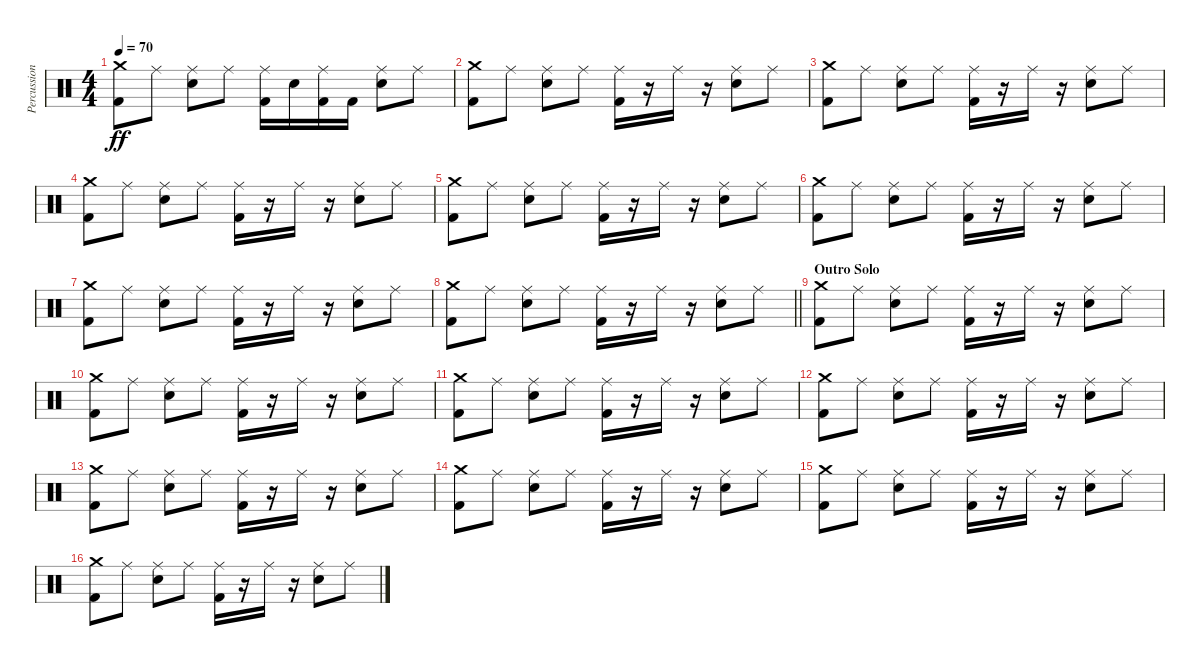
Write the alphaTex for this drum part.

\track ("Percussion" "Percussion") {instrument percussion}
\staff {score}
\articulation defaults
\ts (4 4)
\tempo 70
\clef neutral
\ks c
("Crash medium (hit)" "Kick (hit) 2").8{dy ff} "Ride (middle)".8 ("Ride (middle)" "Electric Snare (hit)").8 "Ride (middle)".8 ("Ride (middle)" "Kick (hit) 2").16 "Electric Snare (hit)".16 ("Ride (middle)" "Kick (hit) 2").16 "Kick (hit) 2".16 ("Ride (middle)" "Electric Snare (hit)").8 "Ride (middle)".8 |
("Crash medium (hit)" "Kick (hit) 2").8 "Ride (middle)".8 ("Ride (middle)" "Electric Snare (hit)").8 "Ride (middle)".8 ("Ride (middle)" "Kick (hit) 2").16 r.16 "Ride (middle)".16 r.16 ("Ride (middle)" "Electric Snare (hit)").8 "Ride (middle)".8 |
("Crash medium (hit)" "Kick (hit) 2").8 "Ride (middle)".8 ("Ride (middle)" "Electric Snare (hit)").8 "Ride (middle)".8 ("Ride (middle)" "Kick (hit) 2").16 r.16 "Ride (middle)".16 r.16 ("Ride (middle)" "Electric Snare (hit)").8 "Ride (middle)".8 |
("Crash medium (hit)" "Kick (hit) 2").8 "Ride (middle)".8 ("Ride (middle)" "Electric Snare (hit)").8 "Ride (middle)".8 ("Ride (middle)" "Kick (hit) 2").16 r.16 "Ride (middle)".16 r.16 ("Ride (middle)" "Electric Snare (hit)").8 "Ride (middle)".8 |
("Crash medium (hit)" "Kick (hit) 2").8 "Ride (middle)".8 ("Ride (middle)" "Electric Snare (hit)").8 "Ride (middle)".8 ("Ride (middle)" "Kick (hit) 2").16 r.16 "Ride (middle)".16 r.16 ("Ride (middle)" "Electric Snare (hit)").8 "Ride (middle)".8 |
("Crash medium (hit)" "Kick (hit) 2").8 "Ride (middle)".8 ("Ride (middle)" "Electric Snare (hit)").8 "Ride (middle)".8 ("Ride (middle)" "Kick (hit) 2").16 r.16 "Ride (middle)".16 r.16 ("Ride (middle)" "Electric Snare (hit)").8 "Ride (middle)".8 |
("Crash medium (hit)" "Kick (hit) 2").8 "Ride (middle)".8 ("Ride (middle)" "Electric Snare (hit)").8 "Ride (middle)".8 ("Ride (middle)" "Kick (hit) 2").16 r.16 "Ride (middle)".16 r.16 ("Ride (middle)" "Electric Snare (hit)").8 "Ride (middle)".8 |
\barLineRight lightlight
("Crash medium (hit)" "Kick (hit) 2").8 "Ride (middle)".8 ("Ride (middle)" "Electric Snare (hit)").8 "Ride (middle)".8 ("Ride (middle)" "Kick (hit) 2").16 r.16 "Ride (middle)".16 r.16 ("Ride (middle)" "Electric Snare (hit)").8 "Ride (middle)".8 |
\section ("" "Outro Solo")
("Crash medium (hit)" "Kick (hit) 2").8 "Ride (middle)".8 ("Ride (middle)" "Electric Snare (hit)").8 "Ride (middle)".8 ("Ride (middle)" "Kick (hit) 2").16 r.16 "Ride (middle)".16 r.16 ("Ride (middle)" "Electric Snare (hit)").8 "Ride (middle)".8 |
("Crash medium (hit)" "Kick (hit) 2").8 "Ride (middle)".8 ("Ride (middle)" "Electric Snare (hit)").8 "Ride (middle)".8 ("Ride (middle)" "Kick (hit) 2").16 r.16 "Ride (middle)".16 r.16 ("Ride (middle)" "Electric Snare (hit)").8 "Ride (middle)".8 |
("Crash medium (hit)" "Kick (hit) 2").8 "Ride (middle)".8 ("Ride (middle)" "Electric Snare (hit)").8 "Ride (middle)".8 ("Ride (middle)" "Kick (hit) 2").16 r.16 "Ride (middle)".16 r.16 ("Ride (middle)" "Electric Snare (hit)").8 "Ride (middle)".8 |
("Crash medium (hit)" "Kick (hit) 2").8 "Ride (middle)".8 ("Ride (middle)" "Electric Snare (hit)").8 "Ride (middle)".8 ("Ride (middle)" "Kick (hit) 2").16 r.16 "Ride (middle)".16 r.16 ("Ride (middle)" "Electric Snare (hit)").8 "Ride (middle)".8 |
("Crash medium (hit)" "Kick (hit) 2").8 "Ride (middle)".8 ("Ride (middle)" "Electric Snare (hit)").8 "Ride (middle)".8 ("Ride (middle)" "Kick (hit) 2").16 r.16 "Ride (middle)".16 r.16 ("Ride (middle)" "Electric Snare (hit)").8 "Ride (middle)".8 |
("Crash medium (hit)" "Kick (hit) 2").8 "Ride (middle)".8 ("Ride (middle)" "Electric Snare (hit)").8 "Ride (middle)".8 ("Ride (middle)" "Kick (hit) 2").16 r.16 "Ride (middle)".16 r.16 ("Ride (middle)" "Electric Snare (hit)").8 "Ride (middle)".8 |
("Crash medium (hit)" "Kick (hit) 2").8 "Ride (middle)".8 ("Ride (middle)" "Electric Snare (hit)").8 "Ride (middle)".8 ("Ride (middle)" "Kick (hit) 2").16 r.16 "Ride (middle)".16 r.16 ("Ride (middle)" "Electric Snare (hit)").8 "Ride (middle)".8 |
("Crash medium (hit)" "Kick (hit) 2").8 "Ride (middle)".8 ("Ride (middle)" "Electric Snare (hit)").8 "Ride (middle)".8 ("Ride (middle)" "Kick (hit) 2").16 r.16 "Ride (middle)".16 r.16 ("Ride (middle)" "Electric Snare (hit)").8 "Ride (middle)".8
